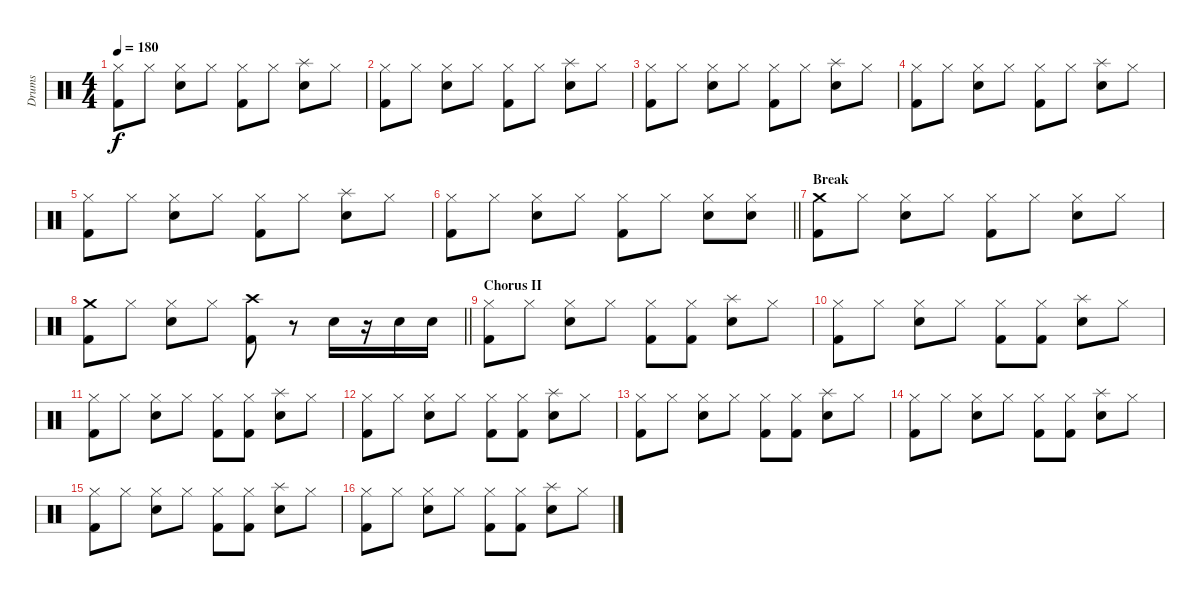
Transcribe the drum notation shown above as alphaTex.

\track ("Drums" "Drums") {instrument percussion}
\staff {score}
\articulation defaults
\ts (4 4)
\tempo 180
\clef neutral
\ks c
("Hi-Hat (closed)" "Kick (hit) 2").8{dy f} "Hi-Hat (closed)".8 ("Hi-Hat (closed)" "Snare (hit) 2").8 "Hi-Hat (closed)".8 ("Hi-Hat (closed)" "Kick (hit) 2").8 "Hi-Hat (closed)".8 ("Splash (hit)" "Snare (hit) 2").8 "Hi-Hat (closed)".8 |
("Hi-Hat (closed)" "Kick (hit) 2").8 "Hi-Hat (closed)".8 ("Hi-Hat (closed)" "Snare (hit) 2").8 "Hi-Hat (closed)".8 ("Hi-Hat (closed)" "Kick (hit) 2").8 "Hi-Hat (closed)".8 ("Splash (hit)" "Snare (hit) 2").8 "Hi-Hat (closed)".8 |
("Hi-Hat (closed)" "Kick (hit) 2").8 "Hi-Hat (closed)".8 ("Hi-Hat (closed)" "Snare (hit) 2").8 "Hi-Hat (closed)".8 ("Hi-Hat (closed)" "Kick (hit) 2").8 "Hi-Hat (closed)".8 ("Splash (hit)" "Snare (hit) 2").8 "Hi-Hat (closed)".8 |
("Hi-Hat (closed)" "Kick (hit) 2").8 "Hi-Hat (closed)".8 ("Hi-Hat (closed)" "Snare (hit) 2").8 "Hi-Hat (closed)".8 ("Hi-Hat (closed)" "Kick (hit) 2").8 "Hi-Hat (closed)".8 ("Splash (hit)" "Snare (hit) 2").8 "Hi-Hat (closed)".8 |
("Hi-Hat (closed)" "Kick (hit) 2").8 "Hi-Hat (closed)".8 ("Hi-Hat (closed)" "Snare (hit) 2").8 "Hi-Hat (closed)".8 ("Hi-Hat (closed)" "Kick (hit) 2").8 "Hi-Hat (closed)".8 ("Splash (hit)" "Snare (hit) 2").8 "Hi-Hat (closed)".8 |
\barLineRight lightlight
("Hi-Hat (closed)" "Kick (hit) 2").8 "Hi-Hat (closed)".8 ("Hi-Hat (closed)" "Snare (hit) 2").8 "Hi-Hat (closed)".8 ("Hi-Hat (closed)" "Kick (hit) 2").8 "Hi-Hat (closed)".8 ("Hi-Hat (closed)" "Snare (hit) 2").8 ("Hi-Hat (closed)" "Snare (hit) 2").8 |
\section ("" "Break")
("Crash medium (hit)" "Kick (hit) 2").8 "Hi-Hat (closed)".8 ("Hi-Hat (closed)" "Snare (hit) 2").8 "Hi-Hat (closed)".8 ("Hi-Hat (closed)" "Kick (hit) 2").8 "Hi-Hat (closed)".8 ("Hi-Hat (closed)" "Snare (hit) 2").8 "Hi-Hat (closed)".8 |
\barLineRight lightlight
("Crash medium (hit)" "Kick (hit) 2").8 "Hi-Hat (closed)".8 ("Hi-Hat (closed)" "Snare (hit) 2").8 "Hi-Hat (closed)".8 ("Crash high (hit)" "Kick (hit) 2").8 r.8 "Snare (hit) 2".16 r.16 "Snare (hit) 2".16 "Snare (hit) 2".16 |
\section ("" "Chorus II")
("Hi-Hat (closed)" "Kick (hit) 2").8 "Hi-Hat (closed)".8 ("Hi-Hat (closed)" "Snare (hit) 2").8 "Hi-Hat (closed)".8 ("Hi-Hat (closed)" "Kick (hit) 2").8 ("Hi-Hat (closed)" "Kick (hit) 2").8 ("Splash (hit)" "Snare (hit) 2").8 "Hi-Hat (closed)".8 |
("Hi-Hat (closed)" "Kick (hit) 2").8 "Hi-Hat (closed)".8 ("Hi-Hat (closed)" "Snare (hit) 2").8 "Hi-Hat (closed)".8 ("Hi-Hat (closed)" "Kick (hit) 2").8 ("Hi-Hat (closed)" "Kick (hit) 2").8 ("Splash (hit)" "Snare (hit) 2").8 "Hi-Hat (closed)".8 |
("Hi-Hat (closed)" "Kick (hit) 2").8 "Hi-Hat (closed)".8 ("Hi-Hat (closed)" "Snare (hit) 2").8 "Hi-Hat (closed)".8 ("Hi-Hat (closed)" "Kick (hit) 2").8 ("Hi-Hat (closed)" "Kick (hit) 2").8 ("Splash (hit)" "Snare (hit) 2").8 "Hi-Hat (closed)".8 |
("Hi-Hat (closed)" "Kick (hit) 2").8 "Hi-Hat (closed)".8 ("Hi-Hat (closed)" "Snare (hit) 2").8 "Hi-Hat (closed)".8 ("Hi-Hat (closed)" "Kick (hit) 2").8 ("Hi-Hat (closed)" "Kick (hit) 2").8 ("Splash (hit)" "Snare (hit) 2").8 "Hi-Hat (closed)".8 |
("Hi-Hat (closed)" "Kick (hit) 2").8 "Hi-Hat (closed)".8 ("Hi-Hat (closed)" "Snare (hit) 2").8 "Hi-Hat (closed)".8 ("Hi-Hat (closed)" "Kick (hit) 2").8 ("Hi-Hat (closed)" "Kick (hit) 2").8 ("Splash (hit)" "Snare (hit) 2").8 "Hi-Hat (closed)".8 |
("Hi-Hat (closed)" "Kick (hit) 2").8 "Hi-Hat (closed)".8 ("Hi-Hat (closed)" "Snare (hit) 2").8 "Hi-Hat (closed)".8 ("Hi-Hat (closed)" "Kick (hit) 2").8 ("Hi-Hat (closed)" "Kick (hit) 2").8 ("Splash (hit)" "Snare (hit) 2").8 "Hi-Hat (closed)".8 |
("Hi-Hat (closed)" "Kick (hit) 2").8 "Hi-Hat (closed)".8 ("Hi-Hat (closed)" "Snare (hit) 2").8 "Hi-Hat (closed)".8 ("Hi-Hat (closed)" "Kick (hit) 2").8 ("Hi-Hat (closed)" "Kick (hit) 2").8 ("Splash (hit)" "Snare (hit) 2").8 "Hi-Hat (closed)".8 |
("Hi-Hat (closed)" "Kick (hit) 2").8 "Hi-Hat (closed)".8 ("Hi-Hat (closed)" "Snare (hit) 2").8 "Hi-Hat (closed)".8 ("Hi-Hat (closed)" "Kick (hit) 2").8 ("Hi-Hat (closed)" "Kick (hit) 2").8 ("Splash (hit)" "Snare (hit) 2").8 "Hi-Hat (closed)".8
